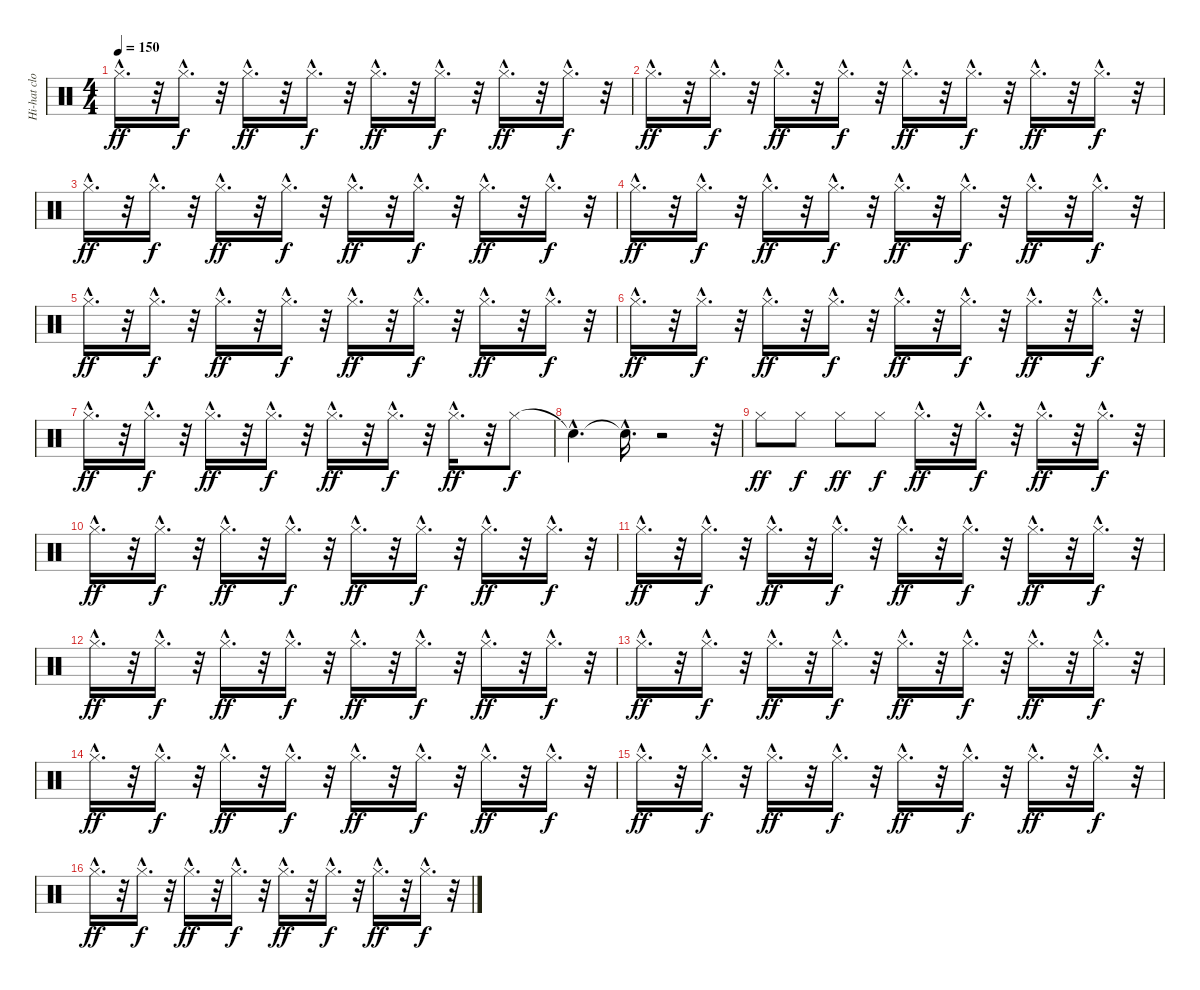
\track ("Hi-hat closed" "Hi-hat clo") {instrument percussion}
\staff {score}
\articulation defaults
\ts (4 4)
\tempo 150
\clef neutral
\ks c "Hi-Hat (closed)"{hac}.16{d dy ff}
r.32 "Hi-Hat (closed)"{hac}.16{d dy f} r.32 "Hi-Hat (closed)"{hac}.16{d dy ff} r.32 "Hi-Hat (closed)"{hac}.16{d dy f} r.32 "Hi-Hat (closed)"{hac}.16{d dy ff} r.32 "Hi-Hat (closed)"{hac}.16{d dy f} r.32 "Hi-Hat (closed)"{hac}.16{d dy ff} r.32 "Hi-Hat (closed)"{hac}.16{d dy f} r.32 |
"Hi-Hat (closed)"{hac}.16{d dy ff} r.32 "Hi-Hat (closed)"{hac}.16{d dy f} r.32 "Hi-Hat (closed)"{hac}.16{d dy ff} r.32 "Hi-Hat (closed)"{hac}.16{d dy f} r.32 "Hi-Hat (closed)"{hac}.16{d dy ff} r.32 "Hi-Hat (closed)"{hac}.16{d dy f} r.32 "Hi-Hat (closed)"{hac}.16{d dy ff} r.32 "Hi-Hat (closed)"{hac}.16{d dy f} r.32 |
"Hi-Hat (closed)"{hac}.16{d dy ff} r.32 "Hi-Hat (closed)"{hac}.16{d dy f} r.32 "Hi-Hat (closed)"{hac}.16{d dy ff} r.32 "Hi-Hat (closed)"{hac}.16{d dy f} r.32 "Hi-Hat (closed)"{hac}.16{d dy ff} r.32 "Hi-Hat (closed)"{hac}.16{d dy f} r.32 "Hi-Hat (closed)"{hac}.16{d dy ff} r.32 "Hi-Hat (closed)"{hac}.16{d dy f} r.32 |
"Hi-Hat (closed)"{hac}.16{d dy ff} r.32 "Hi-Hat (closed)"{hac}.16{d dy f} r.32 "Hi-Hat (closed)"{hac}.16{d dy ff} r.32 "Hi-Hat (closed)"{hac}.16{d dy f} r.32 "Hi-Hat (closed)"{hac}.16{d dy ff} r.32 "Hi-Hat (closed)"{hac}.16{d dy f} r.32 "Hi-Hat (closed)"{hac}.16{d dy ff} r.32 "Hi-Hat (closed)"{hac}.16{d dy f} r.32 |
"Hi-Hat (closed)"{hac}.16{d dy ff} r.32 "Hi-Hat (closed)"{hac}.16{d dy f} r.32 "Hi-Hat (closed)"{hac}.16{d dy ff} r.32 "Hi-Hat (closed)"{hac}.16{d dy f} r.32 "Hi-Hat (closed)"{hac}.16{d dy ff} r.32 "Hi-Hat (closed)"{hac}.16{d dy f} r.32 "Hi-Hat (closed)"{hac}.16{d dy ff} r.32 "Hi-Hat (closed)"{hac}.16{d dy f} r.32 |
"Hi-Hat (closed)"{hac}.16{d dy ff} r.32 "Hi-Hat (closed)"{hac}.16{d dy f} r.32 "Hi-Hat (closed)"{hac}.16{d dy ff} r.32 "Hi-Hat (closed)"{hac}.16{d dy f} r.32 "Hi-Hat (closed)"{hac}.16{d dy ff} r.32 "Hi-Hat (closed)"{hac}.16{d dy f} r.32 "Hi-Hat (closed)"{hac}.16{d dy ff} r.32 "Hi-Hat (closed)"{hac}.16{d dy f} r.32 |
"Hi-Hat (closed)"{hac}.16{d dy ff} r.32 "Hi-Hat (closed)"{hac}.16{d dy f} r.32 "Hi-Hat (closed)"{hac}.16{d dy ff} r.32 "Hi-Hat (closed)"{hac}.16{d dy f} r.32 "Hi-Hat (closed)"{hac}.16{d dy ff} r.32 "Hi-Hat (closed)"{hac}.16{d dy f} r.32 "Hi-Hat (closed)"{hac}.16{d dy ff} r.32 "Hi-Hat (closed)".8{dy f} |
"Snare (hit)"{hac t}.4{d} "Snare (hit)"{hac t}.16{d} r.2 r.32 |
"Hi-Hat (closed)".8{dy ff} "Hi-Hat (closed)".8{dy f} "Hi-Hat (closed)".8{dy ff} "Hi-Hat (closed)".8{dy f} "Hi-Hat (closed)"{hac}.16{d dy ff} r.32 "Hi-Hat (closed)"{hac}.16{d dy f} r.32 "Hi-Hat (closed)"{hac}.16{d dy ff} r.32 "Hi-Hat (closed)"{hac}.16{d dy f} r.32 |
"Hi-Hat (closed)"{hac}.16{d dy ff} r.32 "Hi-Hat (closed)"{hac}.16{d dy f} r.32 "Hi-Hat (closed)"{hac}.16{d dy ff} r.32 "Hi-Hat (closed)"{hac}.16{d dy f} r.32 "Hi-Hat (closed)"{hac}.16{d dy ff} r.32 "Hi-Hat (closed)"{hac}.16{d dy f} r.32 "Hi-Hat (closed)"{hac}.16{d dy ff} r.32 "Hi-Hat (closed)"{hac}.16{d dy f} r.32 |
"Hi-Hat (closed)"{hac}.16{d dy ff} r.32 "Hi-Hat (closed)"{hac}.16{d dy f} r.32 "Hi-Hat (closed)"{hac}.16{d dy ff} r.32 "Hi-Hat (closed)"{hac}.16{d dy f} r.32 "Hi-Hat (closed)"{hac}.16{d dy ff} r.32 "Hi-Hat (closed)"{hac}.16{d dy f} r.32 "Hi-Hat (closed)"{hac}.16{d dy ff} r.32 "Hi-Hat (closed)"{hac}.16{d dy f} r.32 |
"Hi-Hat (closed)"{hac}.16{d dy ff} r.32 "Hi-Hat (closed)"{hac}.16{d dy f} r.32 "Hi-Hat (closed)"{hac}.16{d dy ff} r.32 "Hi-Hat (closed)"{hac}.16{d dy f} r.32 "Hi-Hat (closed)"{hac}.16{d dy ff} r.32 "Hi-Hat (closed)"{hac}.16{d dy f} r.32 "Hi-Hat (closed)"{hac}.16{d dy ff} r.32 "Hi-Hat (closed)"{hac}.16{d dy f} r.32 |
"Hi-Hat (closed)"{hac}.16{d dy ff} r.32 "Hi-Hat (closed)"{hac}.16{d dy f} r.32 "Hi-Hat (closed)"{hac}.16{d dy ff} r.32 "Hi-Hat (closed)"{hac}.16{d dy f} r.32 "Hi-Hat (closed)"{hac}.16{d dy ff} r.32 "Hi-Hat (closed)"{hac}.16{d dy f} r.32 "Hi-Hat (closed)"{hac}.16{d dy ff} r.32 "Hi-Hat (closed)"{hac}.16{d dy f} r.32 |
"Hi-Hat (closed)"{hac}.16{d dy ff} r.32 "Hi-Hat (closed)"{hac}.16{d dy f} r.32 "Hi-Hat (closed)"{hac}.16{d dy ff} r.32 "Hi-Hat (closed)"{hac}.16{d dy f} r.32 "Hi-Hat (closed)"{hac}.16{d dy ff} r.32 "Hi-Hat (closed)"{hac}.16{d dy f} r.32 "Hi-Hat (closed)"{hac}.16{d dy ff} r.32 "Hi-Hat (closed)"{hac}.16{d dy f} r.32 |
"Hi-Hat (closed)"{hac}.16{d dy ff} r.32 "Hi-Hat (closed)"{hac}.16{d dy f} r.32 "Hi-Hat (closed)"{hac}.16{d dy ff} r.32 "Hi-Hat (closed)"{hac}.16{d dy f} r.32 "Hi-Hat (closed)"{hac}.16{d dy ff} r.32 "Hi-Hat (closed)"{hac}.16{d dy f} r.32 "Hi-Hat (closed)"{hac}.16{d dy ff} r.32 "Hi-Hat (closed)"{hac}.16{d dy f} r.32 |
"Hi-Hat (closed)"{hac}.16{d dy ff} r.32 "Hi-Hat (closed)"{hac}.16{d dy f} r.32 "Hi-Hat (closed)"{hac}.16{d dy ff} r.32 "Hi-Hat (closed)"{hac}.16{d dy f} r.32 "Hi-Hat (closed)"{hac}.16{d dy ff} r.32 "Hi-Hat (closed)"{hac}.16{d dy f} r.32 "Hi-Hat (closed)"{hac}.16{d dy ff} r.32 "Hi-Hat (closed)"{hac}.16{d dy f} r.32
